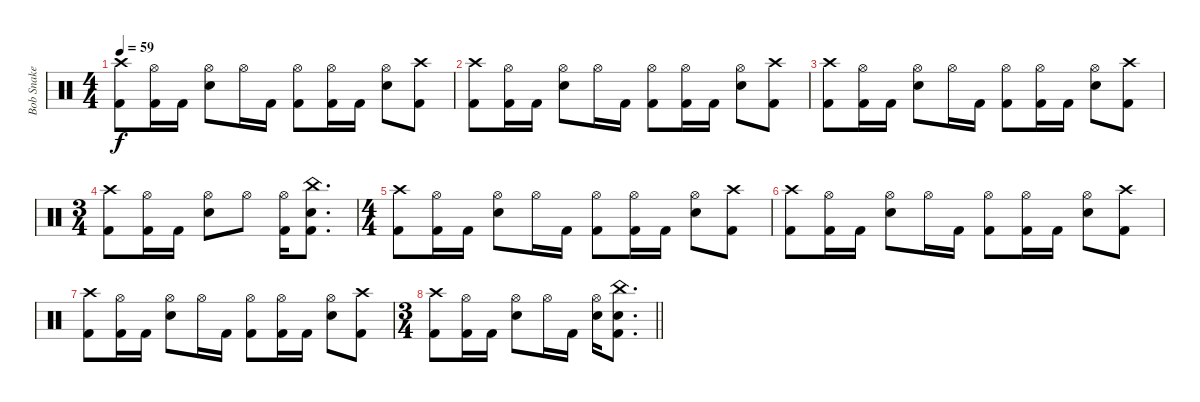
\track ("Bob Snake" "Bob Snake") {instrument percussion}
\staff {score}
\articulation defaults
\ts (4 4)
\tempo 59
\clef neutral
\ks c
("Crash high (hit)" "Kick (hit) 2").8{dy f} ("Hi-Hat (open)" "Kick (hit) 2").16 "Kick (hit) 2".16 ("Hi-Hat (open)" "Snare (hit) 2").8 "Hi-Hat (open)".16 "Kick (hit) 2".16 ("Hi-Hat (open)" "Kick (hit) 2").8 ("Hi-Hat (open)" "Kick (hit) 2").16 "Kick (hit) 2".16 ("Hi-Hat (open)" "Snare (hit) 2").8 ("Crash high (hit)" "Kick (hit) 2").8 |
("Crash high (hit)" "Kick (hit) 2").8 ("Hi-Hat (open)" "Kick (hit) 2").16 "Kick (hit) 2".16 ("Hi-Hat (open)" "Snare (hit) 2").8 "Hi-Hat (open)".16 "Kick (hit) 2".16 ("Hi-Hat (open)" "Kick (hit) 2").8 ("Hi-Hat (open)" "Kick (hit) 2").16 "Kick (hit) 2".16 ("Hi-Hat (open)" "Snare (hit) 2").8 ("Crash high (hit)" "Kick (hit) 2").8 |
("Crash high (hit)" "Kick (hit) 2").8 ("Hi-Hat (open)" "Kick (hit) 2").16 "Kick (hit) 2".16 ("Hi-Hat (open)" "Snare (hit) 2").8 "Hi-Hat (open)".16 "Kick (hit) 2".16 ("Hi-Hat (open)" "Kick (hit) 2").8 ("Hi-Hat (open)" "Kick (hit) 2").16 "Kick (hit) 2".16 ("Hi-Hat (open)" "Snare (hit) 2").8 ("Crash high (hit)" "Kick (hit) 2").8 |
\ts (3 4)
("Crash high (hit)" "Kick (hit) 2").8 ("Hi-Hat (open)" "Kick (hit) 2").16 "Kick (hit) 2".16 ("Hi-Hat (open)" "Snare (hit) 2").8 "Hi-Hat (open)".8 ("Hi-Hat (open)" "Kick (hit) 2").16 ("China (hit)" "Snare (hit) 2" "Kick (hit) 2").8{d} |
\ts (4 4)
("Crash high (hit)" "Kick (hit) 2").8 ("Hi-Hat (open)" "Kick (hit) 2").16 "Kick (hit) 2".16 ("Hi-Hat (open)" "Snare (hit) 2").8 "Hi-Hat (open)".16 "Kick (hit) 2".16 ("Hi-Hat (open)" "Kick (hit) 2").8 ("Hi-Hat (open)" "Kick (hit) 2").16 "Kick (hit) 2".16 ("Hi-Hat (open)" "Snare (hit) 2").8 ("Crash high (hit)" "Kick (hit) 2").8 |
("Crash high (hit)" "Kick (hit) 2").8 ("Hi-Hat (open)" "Kick (hit) 2").16 "Kick (hit) 2".16 ("Hi-Hat (open)" "Snare (hit) 2").8 "Hi-Hat (open)".16 "Kick (hit) 2".16 ("Hi-Hat (open)" "Kick (hit) 2").8 ("Hi-Hat (open)" "Kick (hit) 2").16 "Kick (hit) 2".16 ("Hi-Hat (open)" "Snare (hit) 2").8 ("Crash high (hit)" "Kick (hit) 2").8 |
("Crash high (hit)" "Kick (hit) 2").8 ("Hi-Hat (open)" "Kick (hit) 2").16 "Kick (hit) 2".16 ("Hi-Hat (open)" "Snare (hit) 2").8 "Hi-Hat (open)".16 "Kick (hit) 2".16 ("Hi-Hat (open)" "Kick (hit) 2").8 ("Hi-Hat (open)" "Kick (hit) 2").16 "Kick (hit) 2".16 ("Hi-Hat (open)" "Snare (hit) 2").8 ("Crash high (hit)" "Kick (hit) 2").8 |
\ts (3 4)
\barLineRight lightlight
("Crash high (hit)" "Kick (hit) 2").8 ("Hi-Hat (open)" "Kick (hit) 2").16 "Kick (hit) 2".16 ("Hi-Hat (open)" "Snare (hit) 2").8 "Hi-Hat (open)".16 "Kick (hit) 2".16 ("Hi-Hat (open)" "Snare (hit) 2").16 ("China (hit)" "Snare (hit) 2" "Kick (hit) 2").8{d}
